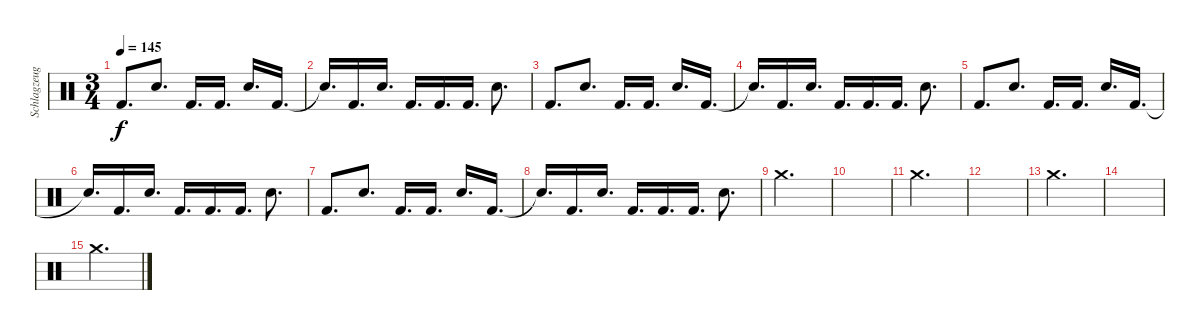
\track ("Schlagzeug" "Schlagzeug") {instrument percussion}
\staff {score}
\articulation defaults
\ts (3 4)
\tempo 145
\clef neutral
\ks c "Kick (hit) 2".8{d dy f} "Snare (hit) 2".8{d} "Kick (hit) 2".16{d} "Kick (hit) 2".16{d} "Snare (hit) 2".16{d} "Kick (hit) 2".16{d}
|
"Snare (hit)"{t}.16{d} "Kick (hit) 2".16{d} "Snare (hit) 2".16{d} "Kick (hit) 2".16{d} "Kick (hit) 2".16{d} "Kick (hit) 2".16{d} "Snare (hit) 2".8{d} |
"Kick (hit) 2".8{d} "Snare (hit) 2".8{d} "Kick (hit) 2".16{d} "Kick (hit) 2".16{d} "Snare (hit) 2".16{d} "Kick (hit) 2".16{d} |
"Snare (hit)"{t}.16{d} "Kick (hit) 2".16{d} "Snare (hit) 2".16{d} "Kick (hit) 2".16{d} "Kick (hit) 2".16{d} "Kick (hit) 2".16{d} "Snare (hit) 2".8{d} |
"Kick (hit) 2".8{d} "Snare (hit) 2".8{d} "Kick (hit) 2".16{d} "Kick (hit) 2".16{d} "Snare (hit) 2".16{d} "Kick (hit) 2".16{d} |
"Snare (hit)"{t}.16{d} "Kick (hit) 2".16{d} "Snare (hit) 2".16{d} "Kick (hit) 2".16{d} "Kick (hit) 2".16{d} "Kick (hit) 2".16{d} "Snare (hit) 2".8{d} |
"Kick (hit) 2".8{d} "Snare (hit) 2".8{d} "Kick (hit) 2".16{d} "Kick (hit) 2".16{d} "Snare (hit) 2".16{d} "Kick (hit) 2".16{d} |
"Snare (hit)"{t}.16{d} "Kick (hit) 2".16{d} "Snare (hit) 2".16{d} "Kick (hit) 2".16{d} "Kick (hit) 2".16{d} "Kick (hit) 2".16{d} "Snare (hit) 2".8{d} |
"Crash medium (hit)".2{d} |
|
"Crash medium (hit)".2{d} |
|
"Crash medium (hit)".2{d} |
|
"Crash medium (hit)".2{d}
